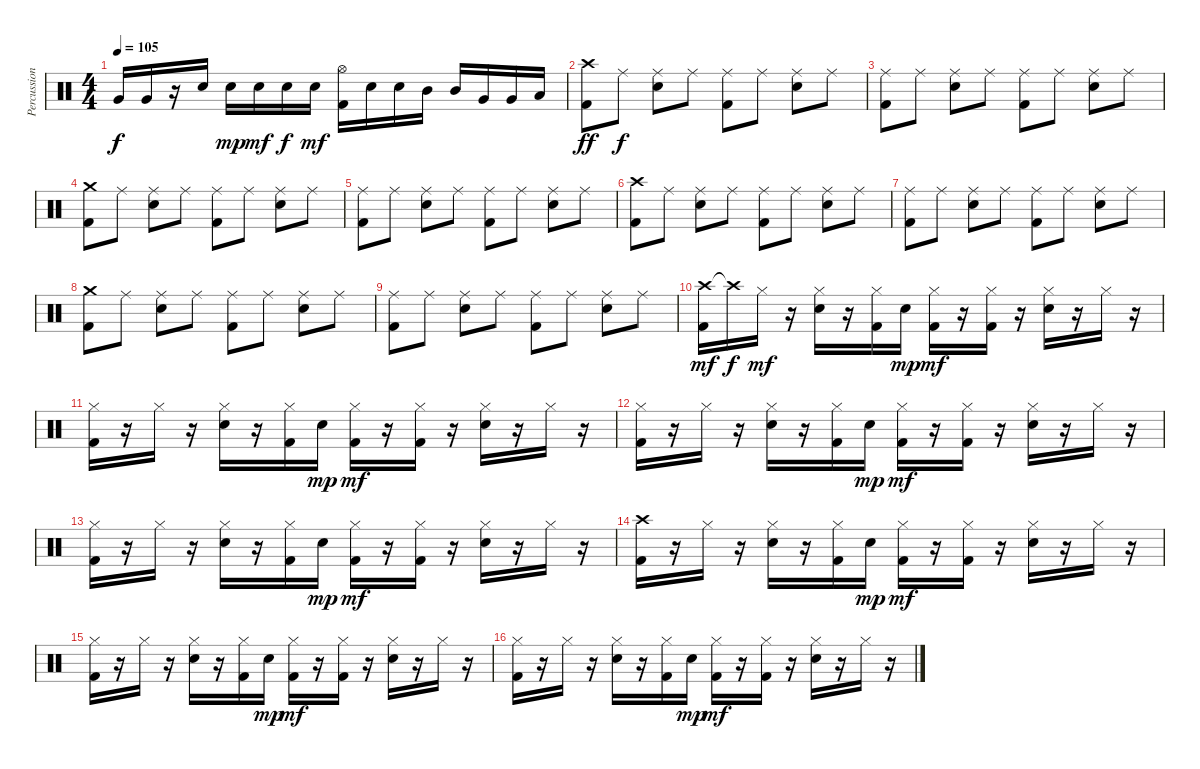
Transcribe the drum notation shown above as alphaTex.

\track ("Percussion" "Percussion") {instrument percussion}
\staff {score}
\articulation defaults
\ts (4 4)
\tempo 105
\clef neutral
\ks c "Very Low Tom (hit)".16{dy f} "Very Low Tom (hit)".16
r.16 "Electric Snare (hit)".16 "Electric Snare (hit)".16{dy mp} "Electric Snare (hit)".16{dy mf} "Electric Snare (hit)".16{dy f} "Electric Snare (hit)".16{dy mf} ("Hi-Hat (open)" "Kick (hit) 2").16 "Electric Snare (hit)".16 "Electric Snare (hit)".16 "Mid Tom (hit)".16 "Mid Tom (hit)".16 "Very Low Tom (hit)".16 "Very Low Tom (hit)".16 "Low Floor Tom (hit)".16 |
("Crash high (hit)" "Kick (hit) 2").8{dy ff volume 13} "Ride (middle)".8{dy f} ("Ride (middle)" "Electric Snare (hit)").8 "Ride (middle)".8 ("Ride (middle)" "Kick (hit) 2").8 "Ride (middle)".8 ("Ride (middle)" "Electric Snare (hit)").8 "Ride (middle)".8 |
("Ride (middle)" "Kick (hit) 2").8 "Ride (middle)".8 ("Ride (middle)" "Electric Snare (hit)").8 "Ride (middle)".8 ("Ride (middle)" "Kick (hit) 2").8 "Ride (middle)".8 ("Ride (middle)" "Electric Snare (hit)").8 "Ride (middle)".8 |
("Crash medium (hit)" "Kick (hit) 2").8 "Ride (middle)".8 ("Ride (middle)" "Electric Snare (hit)").8 "Ride (middle)".8 ("Ride (middle)" "Kick (hit) 2").8 "Ride (middle)".8 ("Ride (middle)" "Electric Snare (hit)").8 "Ride (middle)".8 |
("Ride (middle)" "Kick (hit) 2").8 "Ride (middle)".8 ("Ride (middle)" "Electric Snare (hit)").8 "Ride (middle)".8 ("Ride (middle)" "Kick (hit) 2").8 "Ride (middle)".8 ("Ride (middle)" "Electric Snare (hit)").8 "Ride (middle)".8 |
("Crash high (hit)" "Kick (hit) 2").8 "Ride (middle)".8 ("Ride (middle)" "Electric Snare (hit)").8 "Ride (middle)".8 ("Ride (middle)" "Kick (hit) 2").8 "Ride (middle)".8 ("Ride (middle)" "Electric Snare (hit)").8 "Ride (middle)".8 |
("Ride (middle)" "Kick (hit) 2").8 "Ride (middle)".8 ("Ride (middle)" "Electric Snare (hit)").8 "Ride (middle)".8 ("Ride (middle)" "Kick (hit) 2").8 "Ride (middle)".8 ("Ride (middle)" "Electric Snare (hit)").8 "Ride (middle)".8 |
("Crash medium (hit)" "Kick (hit) 2").8 "Ride (middle)".8 ("Ride (middle)" "Electric Snare (hit)").8 "Ride (middle)".8 ("Ride (middle)" "Kick (hit) 2").8 "Ride (middle)".8 ("Ride (middle)" "Electric Snare (hit)").8 "Ride (middle)".8 |
("Ride (middle)" "Kick (hit) 2").8 "Ride (middle)".8 ("Ride (middle)" "Electric Snare (hit)").8 "Ride (middle)".8 ("Ride (middle)" "Kick (hit) 2").8 "Ride (middle)".8 ("Ride (middle)" "Electric Snare (hit)").8 "Ride (middle)".8 |
("Crash high (hit)" "Kick (hit) 2").16{dy mf volume 16} "Crash high (hit)"{t}.16{dy f} "Hi-Hat (closed)".16{dy mf} r.16 ("Hi-Hat (closed)" "Electric Snare (hit)").16 r.16 ("Hi-Hat (closed)" "Kick (hit) 2").16 "Electric Snare (hit)".16{dy mp} ("Hi-Hat (closed)" "Kick (hit) 2").16{dy mf} r.16 ("Hi-Hat (closed)" "Kick (hit) 2").16 r.16 ("Hi-Hat (closed)" "Electric Snare (hit)").16 r.16 "Hi-Hat (closed)".16 r.16 |
("Hi-Hat (closed)" "Kick (hit) 2").16 r.16 "Hi-Hat (closed)".16 r.16 ("Hi-Hat (closed)" "Electric Snare (hit)").16 r.16 ("Hi-Hat (closed)" "Kick (hit) 2").16 "Electric Snare (hit)".16{dy mp} ("Hi-Hat (closed)" "Kick (hit) 2").16{dy mf} r.16 ("Hi-Hat (closed)" "Kick (hit) 2").16 r.16 ("Hi-Hat (closed)" "Electric Snare (hit)").16 r.16 "Hi-Hat (closed)".16 r.16 |
("Hi-Hat (closed)" "Kick (hit) 2").16 r.16 "Hi-Hat (closed)".16 r.16 ("Hi-Hat (closed)" "Electric Snare (hit)").16 r.16 ("Hi-Hat (closed)" "Kick (hit) 2").16 "Electric Snare (hit)".16{dy mp} ("Hi-Hat (closed)" "Kick (hit) 2").16{dy mf} r.16 ("Hi-Hat (closed)" "Kick (hit) 2").16 r.16 ("Hi-Hat (closed)" "Electric Snare (hit)").16 r.16 "Hi-Hat (closed)".16 r.16 |
("Hi-Hat (closed)" "Kick (hit) 2").16 r.16 "Hi-Hat (closed)".16 r.16 ("Hi-Hat (closed)" "Electric Snare (hit)").16 r.16 ("Hi-Hat (closed)" "Kick (hit) 2").16 "Electric Snare (hit)".16{dy mp} ("Hi-Hat (closed)" "Kick (hit) 2").16{dy mf} r.16 ("Hi-Hat (closed)" "Kick (hit) 2").16 r.16 ("Hi-Hat (closed)" "Electric Snare (hit)").16 r.16 "Hi-Hat (closed)".16 r.16 |
("Crash high (hit)" "Kick (hit) 2").16 r.16 "Hi-Hat (closed)".16 r.16 ("Hi-Hat (closed)" "Electric Snare (hit)").16 r.16 ("Hi-Hat (closed)" "Kick (hit) 2").16 "Electric Snare (hit)".16{dy mp} ("Hi-Hat (closed)" "Kick (hit) 2").16{dy mf} r.16 ("Hi-Hat (closed)" "Kick (hit) 2").16 r.16 ("Hi-Hat (closed)" "Electric Snare (hit)").16 r.16 "Hi-Hat (closed)".16 r.16 |
("Hi-Hat (closed)" "Kick (hit) 2").16 r.16 "Hi-Hat (closed)".16 r.16 ("Hi-Hat (closed)" "Electric Snare (hit)").16 r.16 ("Hi-Hat (closed)" "Kick (hit) 2").16 "Electric Snare (hit)".16{dy mp} ("Hi-Hat (closed)" "Kick (hit) 2").16{dy mf} r.16 ("Hi-Hat (closed)" "Kick (hit) 2").16 r.16 ("Hi-Hat (closed)" "Electric Snare (hit)").16 r.16 "Hi-Hat (closed)".16 r.16 |
("Hi-Hat (closed)" "Kick (hit) 2").16 r.16 "Hi-Hat (closed)".16 r.16 ("Hi-Hat (closed)" "Electric Snare (hit)").16 r.16 ("Hi-Hat (closed)" "Kick (hit) 2").16 "Electric Snare (hit)".16{dy mp} ("Hi-Hat (closed)" "Kick (hit) 2").16{dy mf} r.16 ("Hi-Hat (closed)" "Kick (hit) 2").16 r.16 ("Hi-Hat (closed)" "Electric Snare (hit)").16 r.16 "Hi-Hat (closed)".16 r.16
